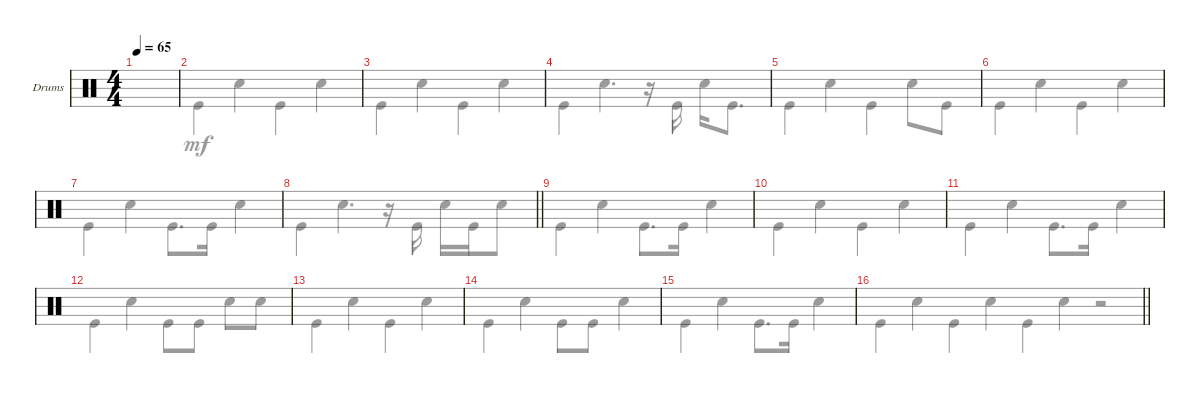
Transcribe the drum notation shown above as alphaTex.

\defaultSystemsLayout 4
\bracketExtendMode groupsimilarinstruments
\firstSystemTrackNameOrientation horizontal
\otherSystemsTrackNameOrientation horizontal
\track ("Drumkit" "Drums") {instrument percussion}
\staff {score}
\articulation defaults
\voice
\ts (4 4)
\scale
0.530703
\tempo 65
\accidentals auto
\clef neutral
\ottava regular
\simile none
\ks aminor
|
\scale
0.469299 |
\scale
0.515428 |
\scale
0.484482 |
|
|
\scale
0.528278 |
\scale
0.471657
\barLineRight lightlight
|
|
|
|
|
|
|
|
\barLineRight lightlight
\voice
\clef neutral
\ottava regular
\simile none
\ks aminor "Kick (hit)".4{dy mf} "Snare (hit) 2".4 "Kick (hit)".4 "Snare (hit) 2".4
|
"Kick (hit)".4 "Snare (hit) 2".4 "Kick (hit)".4 "Snare (hit) 2".4 |
"Kick (hit)".4 "Snare (hit) 2".4 "Kick (hit)".4 "Snare (hit) 2".4 |
"Kick (hit)".4 "Snare (hit) 2".4{d} r.16 "Kick (hit)".16 "Snare (hit) 2".16 "Kick (hit)".8{d} |
"Kick (hit)".4 "Snare (hit) 2".4 "Kick (hit)".4 "Snare (hit) 2".8 "Kick (hit)".8 |
"Kick (hit)".4 "Snare (hit) 2".4 "Kick (hit)".4 "Snare (hit) 2".4 |
"Kick (hit)".4 "Snare (hit) 2".4 "Kick (hit)".8{d} "Kick (hit)".16 "Snare (hit) 2".4 |
\barLineRight lightlight "Kick (hit)".4 "Snare (hit) 2".4{d}
r.16 "Kick (hit)".16 "Snare (hit) 2".16 "Kick (hit)".16 "Snare (hit) 2".8 |
"Kick (hit)".4 "Snare (hit) 2".4 "Kick (hit)".8{d} "Kick (hit)".16 "Snare (hit) 2".4 |
"Kick (hit)".4 "Snare (hit) 2".4 "Kick (hit)".4 "Snare (hit) 2".4 |
"Kick (hit)".4 "Snare (hit) 2".4 "Kick (hit)".8{d} "Kick (hit)".16 "Snare (hit) 2".4 |
"Kick (hit)".4 "Snare (hit) 2".4 "Kick (hit)".8 "Kick (hit)".8 "Snare (hit) 2".8 "Snare (hit) 2".8 |
"Kick (hit)".4 "Snare (hit) 2".4 "Kick (hit)".4 "Snare (hit) 2".4 |
"Kick (hit)".4 "Snare (hit) 2".4 "Kick (hit)".8 "Kick (hit)".8 "Snare (hit) 2".4 |
"Kick (hit)".4 "Snare (hit) 2".4 "Kick (hit)".8{d} "Kick (hit)".16 "Snare (hit) 2".4 |
\barLineRight lightlight "Kick (hit)".4 "Snare (hit) 2".4
r.2
